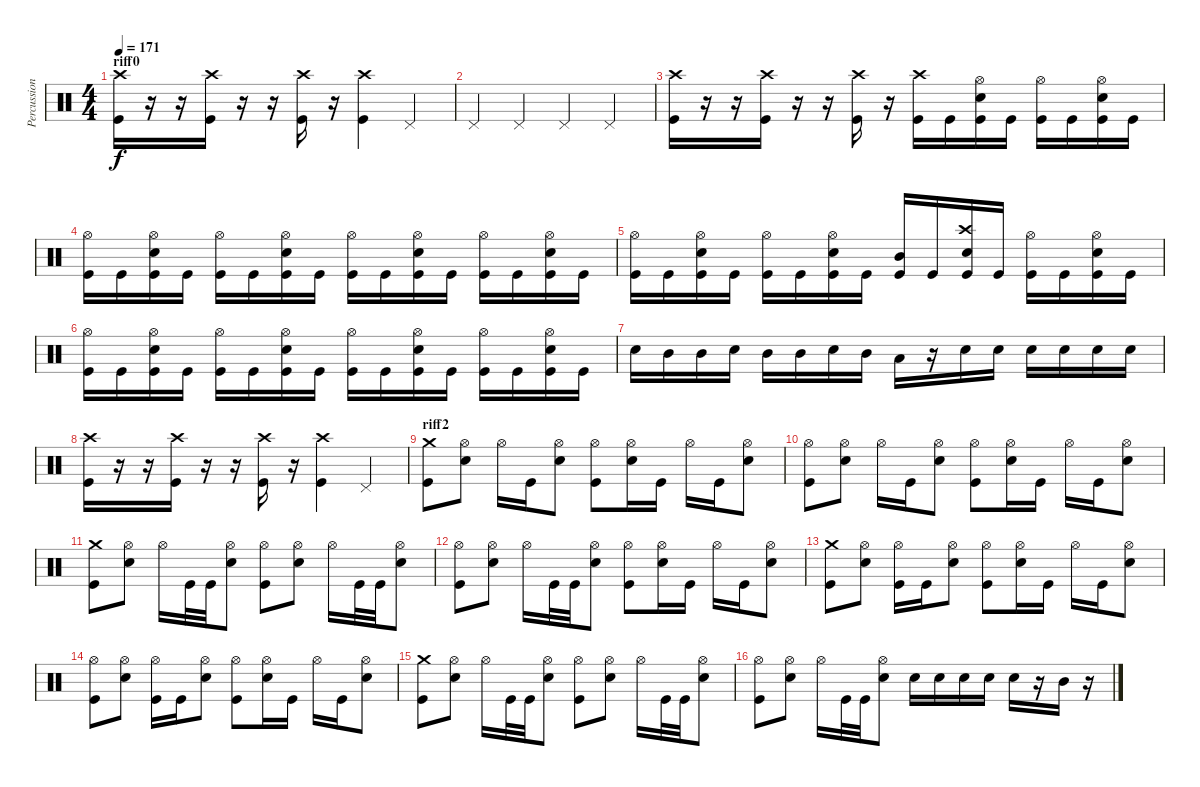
\track ("Percussion" "Percussion") {instrument percussion}
\staff {score}
\articulation defaults
\ts (4 4)
\section ("" "riff0")
\tempo 171
\clef neutral
\ks c
("Kick (hit)" "Crash high (hit)").16{dy f} r.16 r.16 ("Kick (hit)" "Crash high (hit)").16 r.16 r.16 ("Kick (hit)" "Crash high (hit)").16 r.16 ("Kick (hit)" "Crash high (hit)").4 "Pedal Hi-Hat (hit)".4 |
"Pedal Hi-Hat (hit)".4 "Pedal Hi-Hat (hit)".4 "Pedal Hi-Hat (hit)".4 "Pedal Hi-Hat (hit)".4 |
("Kick (hit)" "Crash high (hit)").16 r.16 r.16 ("Kick (hit)" "Crash high (hit)").16 r.16 r.16 ("Kick (hit)" "Crash high (hit)").16 r.16 ("Kick (hit)" "Crash high (hit)").16 "Kick (hit)".16 ("Kick (hit)" "Hi-Hat (open)" "Snare (hit) 2").16 "Kick (hit)".16 ("Kick (hit)" "Hi-Hat (open)").16 "Kick (hit)".16 ("Kick (hit)" "Hi-Hat (open)" "Snare (hit) 2").16 "Kick (hit)".16 |
("Kick (hit)" "Hi-Hat (open)").16 "Kick (hit)".16 ("Kick (hit)" "Hi-Hat (open)" "Snare (hit) 2").16 "Kick (hit)".16 ("Kick (hit)" "Hi-Hat (open)").16 "Kick (hit)".16 ("Kick (hit)" "Hi-Hat (open)" "Snare (hit) 2").16 "Kick (hit)".16 ("Kick (hit)" "Hi-Hat (open)").16 "Kick (hit)".16 ("Kick (hit)" "Hi-Hat (open)" "Snare (hit) 2").16 "Kick (hit)".16 ("Kick (hit)" "Hi-Hat (open)").16 "Kick (hit)".16 ("Kick (hit)" "Hi-Hat (open)" "Snare (hit) 2").16 "Kick (hit)".16 |
("Kick (hit)" "Hi-Hat (open)").16 "Kick (hit)".16 ("Kick (hit)" "Hi-Hat (open)" "Snare (hit) 2").16 "Kick (hit)".16 ("Kick (hit)" "Hi-Hat (open)").16 "Kick (hit)".16 ("Kick (hit)" "Hi-Hat (open)" "Snare (hit) 2").16 "Kick (hit)".16 ("Kick (hit)" "Mid Tom (hit)").16 "Kick (hit)".16 ("Kick (hit)" "Crash high (hit)" "Snare (hit) 2").16 "Kick (hit)".16 ("Kick (hit)" "Hi-Hat (open)").16 "Kick (hit)".16 ("Kick (hit)" "Hi-Hat (open)" "Snare (hit) 2").16 "Kick (hit)".16 |
("Kick (hit)" "Hi-Hat (open)").16 "Kick (hit)".16 ("Kick (hit)" "Hi-Hat (open)" "Snare (hit) 2").16 "Kick (hit)".16 ("Kick (hit)" "Hi-Hat (open)").16 "Kick (hit)".16 ("Kick (hit)" "Hi-Hat (open)" "Snare (hit) 2").16 "Kick (hit)".16 ("Kick (hit)" "Hi-Hat (open)").16 "Kick (hit)".16 ("Kick (hit)" "Hi-Hat (open)" "Snare (hit) 2").16 "Kick (hit)".16 ("Kick (hit)" "Hi-Hat (open)").16 "Kick (hit)".16 ("Kick (hit)" "Hi-Hat (open)" "Snare (hit) 2").16 "Kick (hit)".16 |
"Snare (hit) 2".16 "Mid Tom (hit)".16 "Mid Tom (hit)".16 "Snare (hit) 2".16 "Mid Tom (hit)".16 "Mid Tom (hit)".16 "Snare (hit) 2".16 "Mid Tom (hit)".16 "Low Tom (hit)".16 r.16 "Snare (hit) 2".16 "Snare (hit) 2".16 "Snare (hit) 2".16 "Snare (hit) 2".16 "Snare (hit) 2".16 "Snare (hit) 2".16 |
("Kick (hit)" "Crash high (hit)").16 r.16 r.16 ("Kick (hit)" "Crash high (hit)").16 r.16 r.16 ("Kick (hit)" "Crash high (hit)").16 r.16 ("Kick (hit)" "Crash high (hit)").4 "Pedal Hi-Hat (hit)".4 |
\section ("" "riff2")
("Kick (hit)" "Crash medium (hit)").8 ("Hi-Hat (open)" "Snare (hit) 2").8 "Hi-Hat (open)".16 "Kick (hit)".16 ("Hi-Hat (open)" "Snare (hit) 2").8 ("Kick (hit)" "Hi-Hat (open)").8 ("Hi-Hat (open)" "Snare (hit) 2").16 "Kick (hit)".16 "Hi-Hat (open)".16 "Kick (hit)".16 ("Hi-Hat (open)" "Snare (hit) 2").8 |
("Kick (hit)" "Hi-Hat (open)").8 ("Hi-Hat (open)" "Snare (hit) 2").8 "Hi-Hat (open)".16 "Kick (hit)".16 ("Hi-Hat (open)" "Snare (hit) 2").8 ("Kick (hit)" "Hi-Hat (open)").8 ("Hi-Hat (open)" "Snare (hit) 2").16 "Kick (hit)".16 "Hi-Hat (open)".16 "Kick (hit)".16 ("Hi-Hat (open)" "Snare (hit) 2").8 |
("Kick (hit)" "Crash medium (hit)").8 ("Hi-Hat (open)" "Snare (hit) 2").8 "Hi-Hat (open)".16 "Kick (hit)".32 "Kick (hit)".32 ("Hi-Hat (open)" "Snare (hit) 2").8 ("Kick (hit)" "Hi-Hat (open)").8 ("Hi-Hat (open)" "Snare (hit) 2").8 "Hi-Hat (open)".16 "Kick (hit)".32 "Kick (hit)".32 ("Hi-Hat (open)" "Snare (hit) 2").8 |
("Kick (hit)" "Hi-Hat (open)").8 ("Hi-Hat (open)" "Snare (hit) 2").8 "Hi-Hat (open)".16 "Kick (hit)".32 "Kick (hit)".32 ("Hi-Hat (open)" "Snare (hit) 2").8 ("Kick (hit)" "Hi-Hat (open)").8 ("Hi-Hat (open)" "Snare (hit) 2").16 "Kick (hit)".16 "Hi-Hat (open)".16 "Kick (hit)".16 ("Hi-Hat (open)" "Snare (hit) 2").8 |
("Kick (hit)" "Crash medium (hit)").8 ("Hi-Hat (open)" "Snare (hit) 2").8 ("Kick (hit)" "Hi-Hat (open)").16 "Kick (hit)".16 ("Hi-Hat (open)" "Snare (hit) 2").8 ("Kick (hit)" "Hi-Hat (open)").8 ("Hi-Hat (open)" "Snare (hit) 2").16 "Kick (hit)".16 "Hi-Hat (open)".16 "Kick (hit)".16 ("Hi-Hat (open)" "Snare (hit) 2").8 |
("Kick (hit)" "Hi-Hat (open)").8 ("Hi-Hat (open)" "Snare (hit) 2").8 ("Kick (hit)" "Hi-Hat (open)").16 "Kick (hit)".16 ("Hi-Hat (open)" "Snare (hit) 2").8 ("Kick (hit)" "Hi-Hat (open)").8 ("Hi-Hat (open)" "Snare (hit) 2").16 "Kick (hit)".16 "Hi-Hat (open)".16 "Kick (hit)".16 ("Hi-Hat (open)" "Snare (hit) 2").8 |
("Kick (hit)" "Crash medium (hit)").8 ("Hi-Hat (open)" "Snare (hit) 2").8 "Hi-Hat (open)".16 "Kick (hit)".32 "Kick (hit)".32 ("Hi-Hat (open)" "Snare (hit) 2").8 ("Kick (hit)" "Hi-Hat (open)").8 ("Hi-Hat (open)" "Snare (hit) 2").8 "Hi-Hat (open)".16 "Kick (hit)".32 "Kick (hit)".32 ("Hi-Hat (open)" "Snare (hit) 2").8 |
("Kick (hit)" "Hi-Hat (open)").8 ("Hi-Hat (open)" "Snare (hit) 2").8 "Hi-Hat (open)".16 "Kick (hit)".32 "Kick (hit)".32 ("Hi-Hat (open)" "Snare (hit) 2").8 "Snare (hit) 2".16 "Snare (hit) 2".16 "Snare (hit) 2".16 "Snare (hit) 2".16 "Snare (hit) 2".16 r.16 "Mid Tom (hit)".16 r.16
